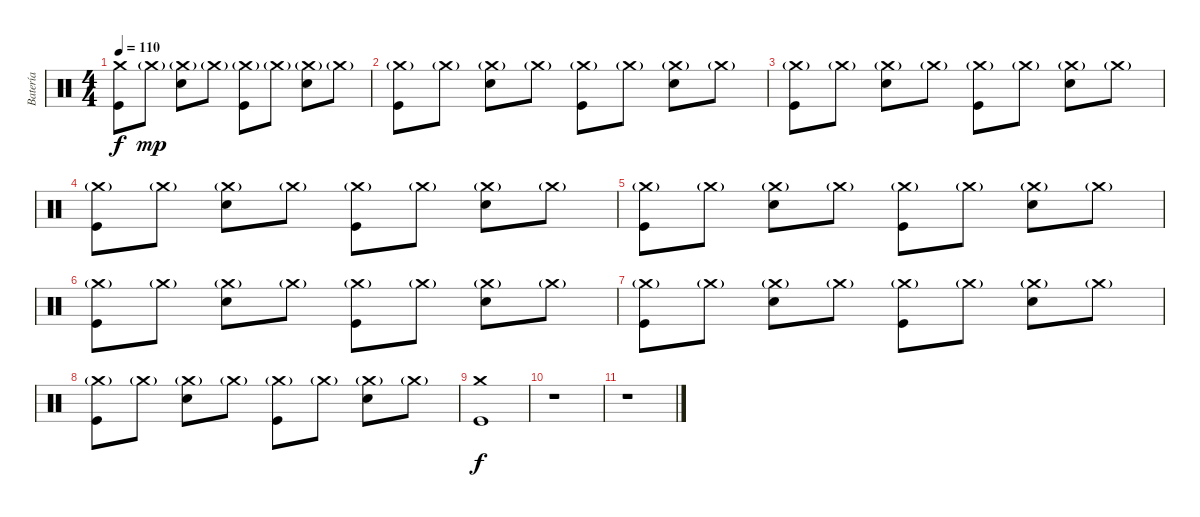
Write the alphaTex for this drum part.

\track ("Batería" "Batería") {instrument percussion}
\staff {score}
\articulation defaults
\ts (4 4)
\tempo 110
\clef neutral
\ks c
("Crash medium (hit)" "Kick (hit)").8{dy f} "Crash medium (hit)"{g}.8{dy mp} ("Crash medium (hit)"{g} "Snare (hit) 2").8 "Crash medium (hit)"{g}.8 ("Crash medium (hit)"{g} "Kick (hit)").8 "Crash medium (hit)"{g}.8 ("Crash medium (hit)"{g} "Snare (hit) 2").8 "Crash medium (hit)"{g}.8 |
("Crash medium (hit)"{g} "Kick (hit)").8 "Crash medium (hit)"{g}.8 ("Crash medium (hit)"{g} "Snare (hit) 2").8 "Crash medium (hit)"{g}.8 ("Crash medium (hit)"{g} "Kick (hit)").8 "Crash medium (hit)"{g}.8 ("Crash medium (hit)"{g} "Snare (hit) 2").8 "Crash medium (hit)"{g}.8 |
("Crash medium (hit)"{g} "Kick (hit)").8 "Crash medium (hit)"{g}.8 ("Crash medium (hit)"{g} "Snare (hit) 2").8 "Crash medium (hit)"{g}.8 ("Crash medium (hit)"{g} "Kick (hit)").8 "Crash medium (hit)"{g}.8 ("Crash medium (hit)"{g} "Snare (hit) 2").8 "Crash medium (hit)"{g}.8 |
("Crash medium (hit)"{g} "Kick (hit)").8 "Crash medium (hit)"{g}.8 ("Crash medium (hit)"{g} "Snare (hit) 2").8 "Crash medium (hit)"{g}.8 ("Crash medium (hit)"{g} "Kick (hit)").8 "Crash medium (hit)"{g}.8 ("Crash medium (hit)"{g} "Snare (hit) 2").8 "Crash medium (hit)"{g}.8 |
("Crash medium (hit)"{g} "Kick (hit)").8 "Crash medium (hit)"{g}.8 ("Crash medium (hit)"{g} "Snare (hit) 2").8 "Crash medium (hit)"{g}.8 ("Crash medium (hit)"{g} "Kick (hit)").8 "Crash medium (hit)"{g}.8 ("Crash medium (hit)"{g} "Snare (hit) 2").8 "Crash medium (hit)"{g}.8 |
("Crash medium (hit)"{g} "Kick (hit)").8 "Crash medium (hit)"{g}.8 ("Crash medium (hit)"{g} "Snare (hit) 2").8 "Crash medium (hit)"{g}.8 ("Crash medium (hit)"{g} "Kick (hit)").8 "Crash medium (hit)"{g}.8 ("Crash medium (hit)"{g} "Snare (hit) 2").8 "Crash medium (hit)"{g}.8 |
("Crash medium (hit)"{g} "Kick (hit)").8 "Crash medium (hit)"{g}.8 ("Crash medium (hit)"{g} "Snare (hit) 2").8 "Crash medium (hit)"{g}.8 ("Crash medium (hit)"{g} "Kick (hit)").8 "Crash medium (hit)"{g}.8 ("Crash medium (hit)"{g} "Snare (hit) 2").8 "Crash medium (hit)"{g}.8 |
("Crash medium (hit)"{g} "Kick (hit)").8 "Crash medium (hit)"{g}.8 ("Crash medium (hit)"{g} "Snare (hit) 2").8 "Crash medium (hit)"{g}.8 ("Crash medium (hit)"{g} "Kick (hit)").8 "Crash medium (hit)"{g}.8 ("Crash medium (hit)"{g} "Snare (hit) 2").8 "Crash medium (hit)"{g}.8 |
("Crash medium (hit)" "Kick (hit)").1{dy f} |
r.1 |
r.1
